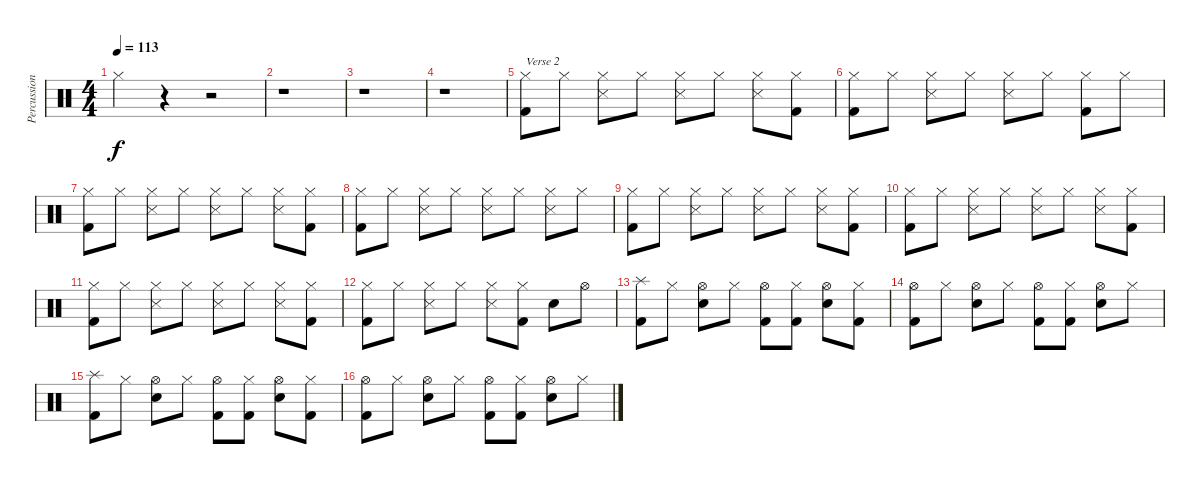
\track ("Percussion" "Percussion") {instrument percussion}
\staff {score}
\articulation defaults
\ts (4 4)
\tempo 113
\clef neutral
\ks c "Hi-Hat (closed)".4{dy f}
r.4 r.2 |
r.1 |
r.1 |
r.1 |
("Hi-Hat (closed)" "Kick (hit) 2").8{txt "Verse 2"} "Hi-Hat (closed)".8 ("Hi-Hat (closed)" "Snare (side stick) 3").8 "Hi-Hat (closed)".8 ("Hi-Hat (closed)" "Snare (side stick) 3").8 "Hi-Hat (closed)".8 ("Hi-Hat (closed)" "Snare (side stick) 3").8 ("Hi-Hat (closed)" "Kick (hit) 2").8 |
("Hi-Hat (closed)" "Kick (hit) 2").8 "Hi-Hat (closed)".8 ("Hi-Hat (closed)" "Snare (side stick) 3").8 "Hi-Hat (closed)".8 ("Hi-Hat (closed)" "Snare (side stick) 3").8 "Hi-Hat (closed)".8 ("Hi-Hat (closed)" "Kick (hit) 2").8 "Hi-Hat (closed)".8 |
("Hi-Hat (closed)" "Kick (hit) 2").8 "Hi-Hat (closed)".8 ("Hi-Hat (closed)" "Snare (side stick) 3").8 "Hi-Hat (closed)".8 ("Hi-Hat (closed)" "Snare (side stick) 3").8 "Hi-Hat (closed)".8 ("Hi-Hat (closed)" "Snare (side stick) 3").8 ("Hi-Hat (closed)" "Kick (hit) 2").8 |
("Hi-Hat (closed)" "Kick (hit) 2").8 "Hi-Hat (closed)".8 ("Hi-Hat (closed)" "Snare (side stick) 3").8 "Hi-Hat (closed)".8 ("Hi-Hat (closed)" "Snare (side stick) 3").8 "Hi-Hat (closed)".8 ("Hi-Hat (closed)" "Snare (side stick) 3").8 "Hi-Hat (closed)".8 |
("Hi-Hat (closed)" "Kick (hit) 2").8 "Hi-Hat (closed)".8 ("Hi-Hat (closed)" "Snare (side stick) 3").8 "Hi-Hat (closed)".8 ("Hi-Hat (closed)" "Snare (side stick) 3").8 "Hi-Hat (closed)".8 ("Hi-Hat (closed)" "Snare (side stick) 3").8 ("Hi-Hat (closed)" "Kick (hit) 2").8 |
("Hi-Hat (closed)" "Kick (hit) 2").8 "Hi-Hat (closed)".8 ("Hi-Hat (closed)" "Snare (side stick) 3").8 "Hi-Hat (closed)".8 ("Hi-Hat (closed)" "Snare (side stick) 3").8 "Hi-Hat (closed)".8 ("Hi-Hat (closed)" "Snare (side stick) 3").8 ("Hi-Hat (closed)" "Kick (hit) 2").8 |
("Hi-Hat (closed)" "Kick (hit) 2").8 "Hi-Hat (closed)".8 ("Hi-Hat (closed)" "Snare (side stick) 3").8 "Hi-Hat (closed)".8 ("Hi-Hat (closed)" "Snare (side stick) 3").8 "Hi-Hat (closed)".8 ("Hi-Hat (closed)" "Snare (side stick) 3").8 ("Hi-Hat (closed)" "Kick (hit) 2").8 |
("Hi-Hat (closed)" "Kick (hit) 2").8 "Hi-Hat (closed)".8 ("Hi-Hat (closed)" "Snare (side stick) 3").8 "Hi-Hat (closed)".8 ("Hi-Hat (closed)" "Snare (side stick) 3").8 ("Hi-Hat (closed)" "Kick (hit) 2").8 "Snare (hit) 2".8 "Hi-Hat (open)".8 |
("Splash (hit)" "Kick (hit) 2").8 "Hi-Hat (closed)".8 ("Hi-Hat (open)" "Snare (hit) 2").8 "Hi-Hat (closed)".8 ("Hi-Hat (open)" "Kick (hit) 2").8 ("Hi-Hat (closed)" "Kick (hit) 2").8 ("Hi-Hat (open)" "Snare (hit) 2").8 ("Hi-Hat (closed)" "Kick (hit) 2").8 |
("Hi-Hat (open)" "Kick (hit) 2").8 "Hi-Hat (closed)".8 ("Hi-Hat (open)" "Snare (hit) 2").8 "Hi-Hat (closed)".8 ("Hi-Hat (open)" "Kick (hit) 2").8 ("Hi-Hat (closed)" "Kick (hit) 2").8 ("Hi-Hat (open)" "Snare (hit) 2").8 "Hi-Hat (closed)".8 |
("Splash (hit)" "Kick (hit) 2").8 "Hi-Hat (closed)".8 ("Hi-Hat (open)" "Snare (hit) 2").8 "Hi-Hat (closed)".8 ("Hi-Hat (open)" "Kick (hit) 2").8 ("Hi-Hat (closed)" "Kick (hit) 2").8 ("Hi-Hat (open)" "Snare (hit) 2").8 ("Hi-Hat (closed)" "Kick (hit) 2").8 |
("Hi-Hat (open)" "Kick (hit) 2").8 "Hi-Hat (closed)".8 ("Hi-Hat (open)" "Snare (hit) 2").8 "Hi-Hat (closed)".8 ("Hi-Hat (open)" "Kick (hit) 2").8 ("Hi-Hat (closed)" "Kick (hit) 2").8 ("Hi-Hat (open)" "Snare (hit) 2").8 "Hi-Hat (closed)".8
